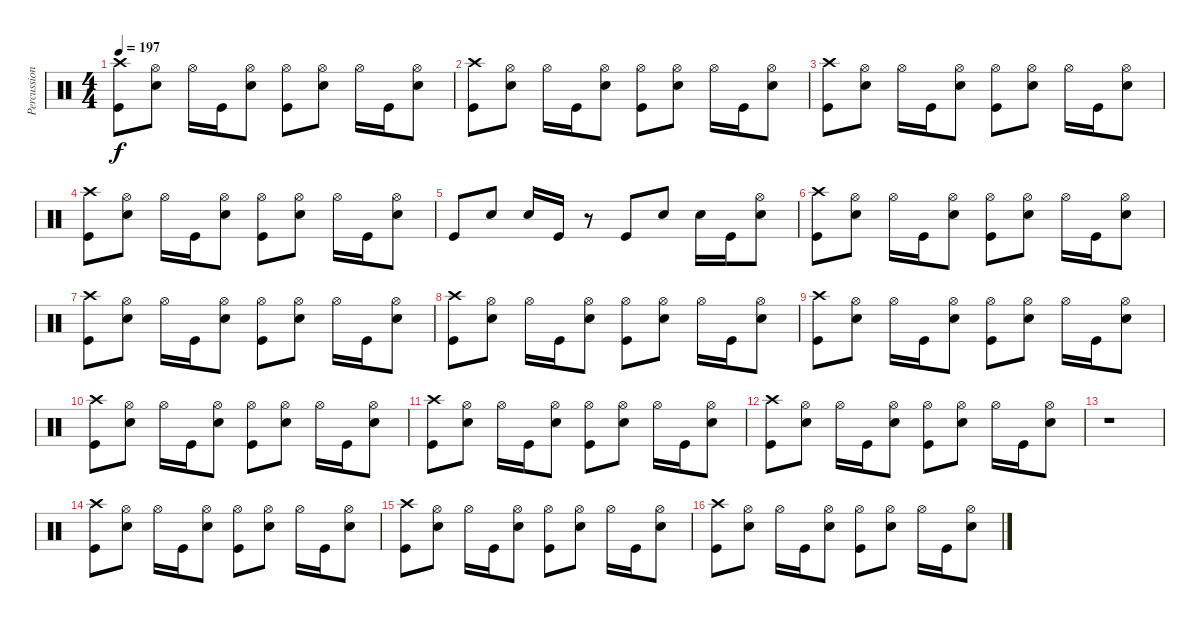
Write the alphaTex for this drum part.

\track ("Percussion" "Percussion") {instrument percussion}
\staff {score}
\articulation defaults
\ts (4 4)
\tempo 197
\clef neutral
\ks c
("Crash high (hit)" "Kick (hit)").8{dy f} ("Hi-Hat (open)" "Snare (hit) 2").8 "Hi-Hat (open)".16 "Kick (hit)".16 ("Hi-Hat (open)" "Snare (hit) 2").8 ("Hi-Hat (open)" "Kick (hit)").8 ("Hi-Hat (open)" "Snare (hit) 2").8 "Hi-Hat (open)".16 "Kick (hit)".16 ("Hi-Hat (open)" "Snare (hit) 2").8 |
("Crash high (hit)" "Kick (hit)").8 ("Hi-Hat (open)" "Snare (hit) 2").8 "Hi-Hat (open)".16 "Kick (hit)".16 ("Hi-Hat (open)" "Snare (hit) 2").8 ("Hi-Hat (open)" "Kick (hit)").8 ("Hi-Hat (open)" "Snare (hit) 2").8 "Hi-Hat (open)".16 "Kick (hit)".16 ("Hi-Hat (open)" "Snare (hit) 2").8 |
("Crash high (hit)" "Kick (hit)").8 ("Hi-Hat (open)" "Snare (hit) 2").8 "Hi-Hat (open)".16 "Kick (hit)".16 ("Hi-Hat (open)" "Snare (hit) 2").8 ("Hi-Hat (open)" "Kick (hit)").8 ("Hi-Hat (open)" "Snare (hit) 2").8 "Hi-Hat (open)".16 "Kick (hit)".16 ("Hi-Hat (open)" "Snare (hit) 2").8 |
("Crash high (hit)" "Kick (hit)").8 ("Hi-Hat (open)" "Snare (hit) 2").8 "Hi-Hat (open)".16 "Kick (hit)".16 ("Hi-Hat (open)" "Snare (hit) 2").8 ("Hi-Hat (open)" "Kick (hit)").8 ("Hi-Hat (open)" "Snare (hit) 2").8 "Hi-Hat (open)".16 "Kick (hit)".16 ("Hi-Hat (open)" "Snare (hit) 2").8 |
"Kick (hit)".8 "Snare (hit) 2".8 "Snare (hit) 2".16 "Kick (hit)".16 r.8 "Kick (hit)".8 "Snare (hit) 2".8 "Snare (hit) 2".16 "Kick (hit)".16 ("Hi-Hat (open)" "Snare (hit) 2").8 |
("Crash high (hit)" "Kick (hit)").8 ("Hi-Hat (open)" "Snare (hit) 2").8 "Hi-Hat (open)".16 "Kick (hit)".16 ("Hi-Hat (open)" "Snare (hit) 2").8 ("Hi-Hat (open)" "Kick (hit)").8 ("Hi-Hat (open)" "Snare (hit) 2").8 "Hi-Hat (open)".16 "Kick (hit)".16 ("Hi-Hat (open)" "Snare (hit) 2").8 |
("Crash high (hit)" "Kick (hit)").8 ("Hi-Hat (open)" "Snare (hit) 2").8 "Hi-Hat (open)".16 "Kick (hit)".16 ("Hi-Hat (open)" "Snare (hit) 2").8 ("Hi-Hat (open)" "Kick (hit)").8 ("Hi-Hat (open)" "Snare (hit) 2").8 "Hi-Hat (open)".16 "Kick (hit)".16 ("Hi-Hat (open)" "Snare (hit) 2").8 |
("Crash high (hit)" "Kick (hit)").8 ("Hi-Hat (open)" "Snare (hit) 2").8 "Hi-Hat (open)".16 "Kick (hit)".16 ("Hi-Hat (open)" "Snare (hit) 2").8 ("Hi-Hat (open)" "Kick (hit)").8 ("Hi-Hat (open)" "Snare (hit) 2").8 "Hi-Hat (open)".16 "Kick (hit)".16 ("Hi-Hat (open)" "Snare (hit) 2").8 |
("Crash high (hit)" "Kick (hit)").8 ("Hi-Hat (open)" "Snare (hit) 2").8 "Hi-Hat (open)".16 "Kick (hit)".16 ("Hi-Hat (open)" "Snare (hit) 2").8 ("Hi-Hat (open)" "Kick (hit)").8 ("Hi-Hat (open)" "Snare (hit) 2").8 "Hi-Hat (open)".16 "Kick (hit)".16 ("Hi-Hat (open)" "Snare (hit) 2").8 |
("Crash high (hit)" "Kick (hit)").8 ("Hi-Hat (open)" "Snare (hit) 2").8 "Hi-Hat (open)".16 "Kick (hit)".16 ("Hi-Hat (open)" "Snare (hit) 2").8 ("Hi-Hat (open)" "Kick (hit)").8 ("Hi-Hat (open)" "Snare (hit) 2").8 "Hi-Hat (open)".16 "Kick (hit)".16 ("Hi-Hat (open)" "Snare (hit) 2").8 |
("Crash high (hit)" "Kick (hit)").8 ("Hi-Hat (open)" "Snare (hit) 2").8 "Hi-Hat (open)".16 "Kick (hit)".16 ("Hi-Hat (open)" "Snare (hit) 2").8 ("Hi-Hat (open)" "Kick (hit)").8 ("Hi-Hat (open)" "Snare (hit) 2").8 "Hi-Hat (open)".16 "Kick (hit)".16 ("Hi-Hat (open)" "Snare (hit) 2").8 |
("Crash high (hit)" "Kick (hit)").8 ("Hi-Hat (open)" "Snare (hit) 2").8 "Hi-Hat (open)".16 "Kick (hit)".16 ("Hi-Hat (open)" "Snare (hit) 2").8 ("Hi-Hat (open)" "Kick (hit)").8 ("Hi-Hat (open)" "Snare (hit) 2").8 "Hi-Hat (open)".16 "Kick (hit)".16 ("Hi-Hat (open)" "Snare (hit) 2").8 |
r.1 |
("Crash high (hit)" "Kick (hit)").8 ("Hi-Hat (open)" "Snare (hit) 2").8 "Hi-Hat (open)".16 "Kick (hit)".16 ("Hi-Hat (open)" "Snare (hit) 2").8 ("Hi-Hat (open)" "Kick (hit)").8 ("Hi-Hat (open)" "Snare (hit) 2").8 "Hi-Hat (open)".16 "Kick (hit)".16 ("Hi-Hat (open)" "Snare (hit) 2").8 |
("Crash high (hit)" "Kick (hit)").8 ("Hi-Hat (open)" "Snare (hit) 2").8 "Hi-Hat (open)".16 "Kick (hit)".16 ("Hi-Hat (open)" "Snare (hit) 2").8 ("Hi-Hat (open)" "Kick (hit)").8 ("Hi-Hat (open)" "Snare (hit) 2").8 "Hi-Hat (open)".16 "Kick (hit)".16 ("Hi-Hat (open)" "Snare (hit) 2").8 |
("Crash high (hit)" "Kick (hit)").8 ("Hi-Hat (open)" "Snare (hit) 2").8 "Hi-Hat (open)".16 "Kick (hit)".16 ("Hi-Hat (open)" "Snare (hit) 2").8 ("Hi-Hat (open)" "Kick (hit)").8 ("Hi-Hat (open)" "Snare (hit) 2").8 "Hi-Hat (open)".16 "Kick (hit)".16 ("Hi-Hat (open)" "Snare (hit) 2").8
